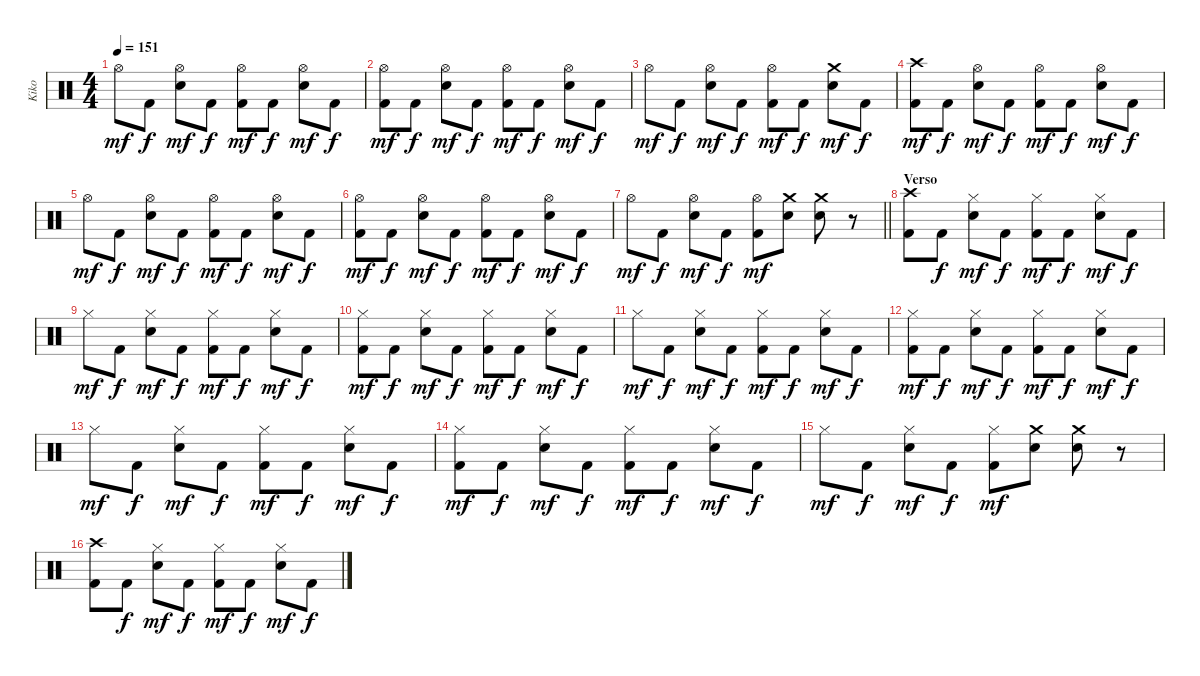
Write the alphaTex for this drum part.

\track ("Kiko" "Kiko") {instrument percussion}
\staff {score}
\articulation defaults
\ts (4 4)
\tempo 151
\clef neutral
\ks c "Hi-Hat (open)".8{dy mf} "Kick (hit) 2".8{dy f}
("Hi-Hat (open)" "Electric Snare (hit)").8{dy mf} "Kick (hit) 2".8{dy f} ("Hi-Hat (open)" "Kick (hit) 2").8{dy mf} "Kick (hit) 2".8{dy f} ("Hi-Hat (open)" "Electric Snare (hit)").8{dy mf} "Kick (hit) 2".8{dy f} |
("Hi-Hat (open)" "Kick (hit) 2").8{dy mf} "Kick (hit) 2".8{dy f} ("Hi-Hat (open)" "Electric Snare (hit)").8{dy mf} "Kick (hit) 2".8{dy f} ("Hi-Hat (open)" "Kick (hit) 2").8{dy mf} "Kick (hit) 2".8{dy f} ("Hi-Hat (open)" "Electric Snare (hit)").8{dy mf} "Kick (hit) 2".8{dy f} |
"Hi-Hat (open)".8{dy mf} "Kick (hit) 2".8{dy f} ("Hi-Hat (open)" "Electric Snare (hit)").8{dy mf} "Kick (hit) 2".8{dy f} ("Hi-Hat (open)" "Kick (hit) 2").8{dy mf} "Kick (hit) 2".8{dy f} ("Crash medium (hit)" "Electric Snare (hit)").8{dy mf} "Kick (hit) 2".8{dy f} |
("Crash high (hit)" "Kick (hit) 2").8{dy mf} "Kick (hit) 2".8{dy f} ("Hi-Hat (open)" "Electric Snare (hit)").8{dy mf} "Kick (hit) 2".8{dy f} ("Hi-Hat (open)" "Kick (hit) 2").8{dy mf} "Kick (hit) 2".8{dy f} ("Hi-Hat (open)" "Electric Snare (hit)").8{dy mf} "Kick (hit) 2".8{dy f} |
"Hi-Hat (open)".8{dy mf} "Kick (hit) 2".8{dy f} ("Hi-Hat (open)" "Electric Snare (hit)").8{dy mf} "Kick (hit) 2".8{dy f} ("Hi-Hat (open)" "Kick (hit) 2").8{dy mf} "Kick (hit) 2".8{dy f} ("Hi-Hat (open)" "Electric Snare (hit)").8{dy mf} "Kick (hit) 2".8{dy f} |
("Hi-Hat (open)" "Kick (hit) 2").8{dy mf} "Kick (hit) 2".8{dy f} ("Hi-Hat (open)" "Electric Snare (hit)").8{dy mf} "Kick (hit) 2".8{dy f} ("Hi-Hat (open)" "Kick (hit) 2").8{dy mf} "Kick (hit) 2".8{dy f} ("Hi-Hat (open)" "Electric Snare (hit)").8{dy mf} "Kick (hit) 2".8{dy f} |
\barLineRight lightlight "Hi-Hat (open)".8{dy mf} "Kick (hit) 2".8{dy f}
("Hi-Hat (open)" "Electric Snare (hit)").8{dy mf} "Kick (hit) 2".8{dy f} ("Hi-Hat (open)" "Kick (hit) 2").8{dy mf} ("Crash medium (hit)" "Electric Snare (hit)").8 ("Crash medium (hit)" "Electric Snare (hit)").8 r.8 |
\section ("" "Verso")
("Crash high (hit)" "Kick (hit) 2").8 "Kick (hit) 2".8{dy f} ("Hi-Hat (closed)" "Electric Snare (hit)").8{dy mf} "Kick (hit) 2".8{dy f} ("Hi-Hat (closed)" "Kick (hit) 2").8{dy mf} "Kick (hit) 2".8{dy f} ("Hi-Hat (closed)" "Electric Snare (hit)").8{dy mf} "Kick (hit) 2".8{dy f} |
"Hi-Hat (closed)".8{dy mf} "Kick (hit) 2".8{dy f} ("Hi-Hat (closed)" "Electric Snare (hit)").8{dy mf} "Kick (hit) 2".8{dy f} ("Hi-Hat (closed)" "Kick (hit) 2").8{dy mf} "Kick (hit) 2".8{dy f} ("Hi-Hat (closed)" "Electric Snare (hit)").8{dy mf} "Kick (hit) 2".8{dy f} |
("Hi-Hat (closed)" "Kick (hit) 2").8{dy mf} "Kick (hit) 2".8{dy f} ("Hi-Hat (closed)" "Electric Snare (hit)").8{dy mf} "Kick (hit) 2".8{dy f} ("Hi-Hat (closed)" "Kick (hit) 2").8{dy mf} "Kick (hit) 2".8{dy f} ("Hi-Hat (closed)" "Electric Snare (hit)").8{dy mf} "Kick (hit) 2".8{dy f} |
"Hi-Hat (closed)".8{dy mf} "Kick (hit) 2".8{dy f} ("Hi-Hat (closed)" "Electric Snare (hit)").8{dy mf} "Kick (hit) 2".8{dy f} ("Hi-Hat (closed)" "Kick (hit) 2").8{dy mf} "Kick (hit) 2".8{dy f} ("Hi-Hat (closed)" "Electric Snare (hit)").8{dy mf} "Kick (hit) 2".8{dy f} |
("Hi-Hat (closed)" "Kick (hit) 2").8{dy mf} "Kick (hit) 2".8{dy f} ("Hi-Hat (closed)" "Electric Snare (hit)").8{dy mf} "Kick (hit) 2".8{dy f} ("Hi-Hat (closed)" "Kick (hit) 2").8{dy mf} "Kick (hit) 2".8{dy f} ("Hi-Hat (closed)" "Electric Snare (hit)").8{dy mf} "Kick (hit) 2".8{dy f} |
"Hi-Hat (closed)".8{dy mf} "Kick (hit) 2".8{dy f} ("Hi-Hat (closed)" "Electric Snare (hit)").8{dy mf} "Kick (hit) 2".8{dy f} ("Hi-Hat (closed)" "Kick (hit) 2").8{dy mf} "Kick (hit) 2".8{dy f} ("Hi-Hat (closed)" "Electric Snare (hit)").8{dy mf} "Kick (hit) 2".8{dy f} |
("Hi-Hat (closed)" "Kick (hit) 2").8{dy mf} "Kick (hit) 2".8{dy f} ("Hi-Hat (closed)" "Electric Snare (hit)").8{dy mf} "Kick (hit) 2".8{dy f} ("Hi-Hat (closed)" "Kick (hit) 2").8{dy mf} "Kick (hit) 2".8{dy f} ("Hi-Hat (closed)" "Electric Snare (hit)").8{dy mf} "Kick (hit) 2".8{dy f} |
"Hi-Hat (closed)".8{dy mf} "Kick (hit) 2".8{dy f} ("Hi-Hat (closed)" "Electric Snare (hit)").8{dy mf} "Kick (hit) 2".8{dy f} ("Hi-Hat (closed)" "Kick (hit) 2").8{dy mf} ("Crash medium (hit)" "Electric Snare (hit)").8 ("Crash medium (hit)" "Electric Snare (hit)").8 r.8 |
("Crash high (hit)" "Kick (hit) 2").8 "Kick (hit) 2".8{dy f} ("Hi-Hat (closed)" "Electric Snare (hit)").8{dy mf} "Kick (hit) 2".8{dy f} ("Hi-Hat (closed)" "Kick (hit) 2").8{dy mf} "Kick (hit) 2".8{dy f} ("Hi-Hat (closed)" "Electric Snare (hit)").8{dy mf} "Kick (hit) 2".8{dy f}
